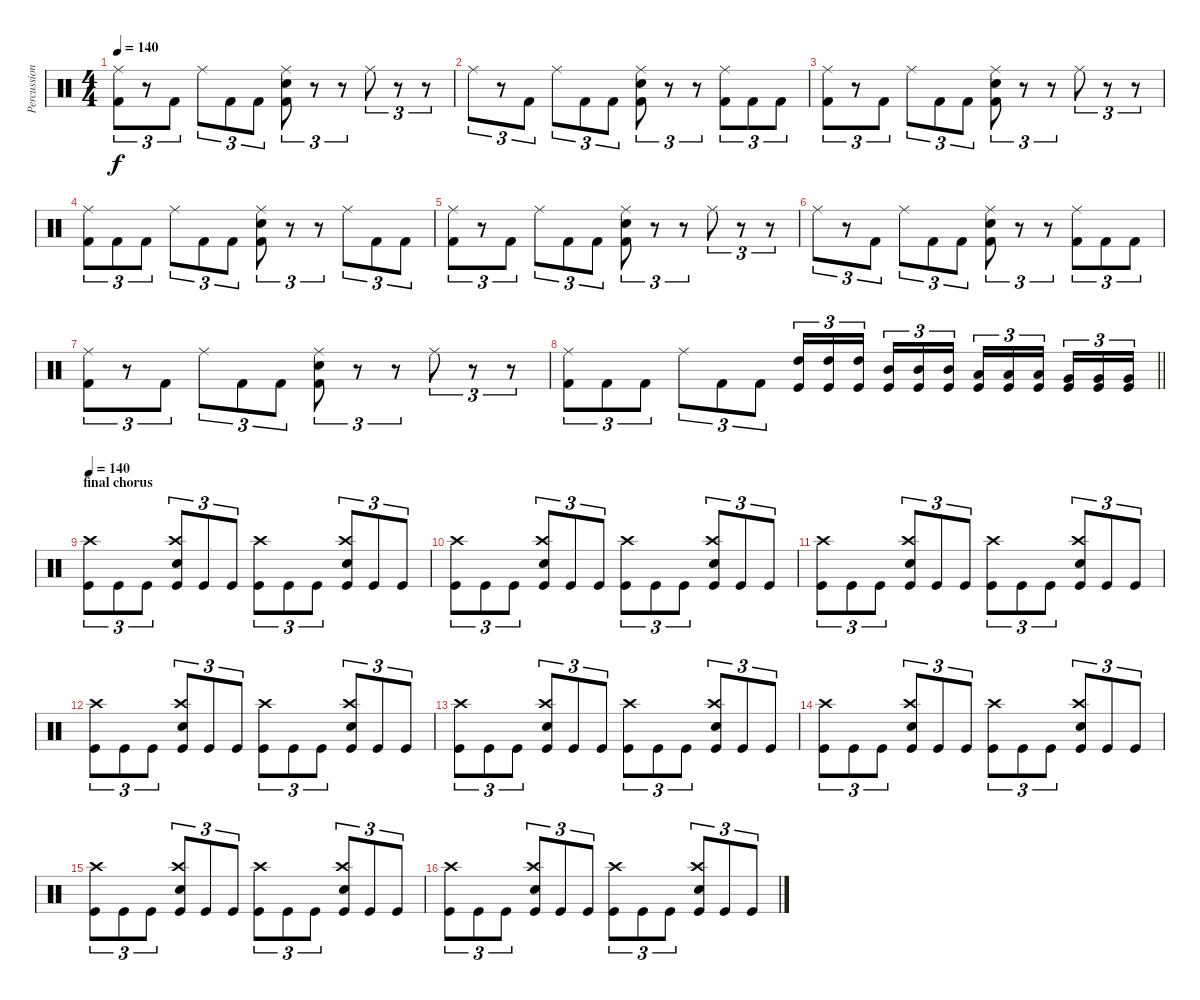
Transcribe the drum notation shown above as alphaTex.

\track ("Percussion" "Percussion") {instrument percussion}
\staff
\articulation defaults
\ts (4 4)
\tempo 140
\clef neutral
\ks c
("Ride (middle)" "Kick (hit) 2").8{tu (3 2) dy f} r.8{tu (3 2)} "Kick (hit) 2".8{tu (3 2)} "Ride (middle)".8{tu (3 2)} "Kick (hit) 2".8{tu (3 2)} "Kick (hit) 2".8{tu (3 2)} ("Ride (middle)" "Electric Snare (hit)" "Kick (hit) 2").8{tu (3 2)} r.8{tu (3 2)} r.8{tu (3 2)} "Ride (middle)".8{tu (3 2)} r.8{tu (3 2)} r.8{tu (3 2)} |
"Ride (middle)".8{tu (3 2)} r.8{tu (3 2)} "Kick (hit) 2".8{tu (3 2)} "Ride (middle)".8{tu (3 2)} "Kick (hit) 2".8{tu (3 2)} "Kick (hit) 2".8{tu (3 2)} ("Ride (middle)" "Electric Snare (hit)" "Kick (hit) 2").8{tu (3 2)} r.8{tu (3 2)} r.8{tu (3 2)} ("Ride (middle)" "Kick (hit) 2").8{tu (3 2)} "Kick (hit) 2".8{tu (3 2)} "Kick (hit) 2".8{tu (3 2)} |
("Ride (middle)" "Kick (hit) 2").8{tu (3 2)} r.8{tu (3 2)} "Kick (hit) 2".8{tu (3 2)} "Ride (middle)".8{tu (3 2)} "Kick (hit) 2".8{tu (3 2)} "Kick (hit) 2".8{tu (3 2)} ("Ride (middle)" "Electric Snare (hit)" "Kick (hit) 2").8{tu (3 2)} r.8{tu (3 2)} r.8{tu (3 2)} "Ride (middle)".8{tu (3 2)} r.8{tu (3 2)} r.8{tu (3 2)} |
("Ride (middle)" "Kick (hit) 2").8{tu (3 2)} "Kick (hit) 2".8{tu (3 2)} "Kick (hit) 2".8{tu (3 2)} "Ride (middle)".8{tu (3 2)} "Kick (hit) 2".8{tu (3 2)} "Kick (hit) 2".8{tu (3 2)} ("Ride (middle)" "Electric Snare (hit)" "Kick (hit) 2").8{tu (3 2)} r.8{tu (3 2)} r.8{tu (3 2)} "Ride (middle)".8{tu (3 2)} "Kick (hit) 2".8{tu (3 2)} "Kick (hit) 2".8{tu (3 2)} |
("Ride (middle)" "Kick (hit) 2").8{tu (3 2)} r.8{tu (3 2)} "Kick (hit) 2".8{tu (3 2)} "Ride (middle)".8{tu (3 2)} "Kick (hit) 2".8{tu (3 2)} "Kick (hit) 2".8{tu (3 2)} ("Ride (middle)" "Electric Snare (hit)" "Kick (hit) 2").8{tu (3 2)} r.8{tu (3 2)} r.8{tu (3 2)} "Ride (middle)".8{tu (3 2)} r.8{tu (3 2)} r.8{tu (3 2)} |
"Ride (middle)".8{tu (3 2)} r.8{tu (3 2)} "Kick (hit) 2".8{tu (3 2)} "Ride (middle)".8{tu (3 2)} "Kick (hit) 2".8{tu (3 2)} "Kick (hit) 2".8{tu (3 2)} ("Ride (middle)" "Electric Snare (hit)" "Kick (hit) 2").8{tu (3 2)} r.8{tu (3 2)} r.8{tu (3 2)} ("Ride (middle)" "Kick (hit) 2").8{tu (3 2)} "Kick (hit) 2".8{tu (3 2)} "Kick (hit) 2".8{tu (3 2)} |
("Ride (middle)" "Kick (hit) 2").8{tu (3 2)} r.8{tu (3 2)} "Kick (hit) 2".8{tu (3 2)} "Ride (middle)".8{tu (3 2)} "Kick (hit) 2".8{tu (3 2)} "Kick (hit) 2".8{tu (3 2)} ("Ride (middle)" "Electric Snare (hit)" "Kick (hit) 2").8{tu (3 2)} r.8{tu (3 2)} r.8{tu (3 2)} "Ride (middle)".8{tu (3 2)} r.8{tu (3 2)} r.8{tu (3 2)} |
\barLineRight lightlight
("Ride (middle)" "Kick (hit) 2").8{tu (3 2)} "Kick (hit) 2".8{tu (3 2)} "Kick (hit) 2".8{tu (3 2)} "Ride (middle)".8{tu (3 2)} "Kick (hit) 2".8{tu (3 2)} "Kick (hit) 2".8{tu (3 2)} ("High Tom (hit)" "Kick (hit)").16{tu (3 2)} ("High Tom (hit)" "Kick (hit)").16{tu (3 2)} ("High Tom (hit)" "Kick (hit)").16{tu (3 2) beam splitsecondary} ("Mid Tom (hit)" "Kick (hit)").16{tu (3 2)} ("Mid Tom (hit)" "Kick (hit)").16{tu (3 2)} ("Mid Tom (hit)" "Kick (hit)").16{tu (3 2)} ("Low Tom (hit)" "Kick (hit)").16{tu (3 2)} ("Low Tom (hit)" "Kick (hit)").16{tu (3 2)} ("Low Tom (hit)" "Kick (hit)").16{tu (3 2) beam splitsecondary} ("Very Low Tom (hit)" "Kick (hit)").16{tu (3 2)} ("Very Low Tom (hit)" "Kick (hit)").16{tu (3 2)} ("Very Low Tom (hit)" "Kick (hit)").16{tu (3 2)} |
\section ("" "final chorus")
\tempo 140
("Crash high (hit)" "Kick (hit)").8{tu (3 2)} "Kick (hit)".8{tu (3 2)} "Kick (hit)".8{tu (3 2)} ("Crash high (hit)" "Snare (hit) 2" "Kick (hit)").8{tu (3 2)} "Kick (hit)".8{tu (3 2)} "Kick (hit)".8{tu (3 2)} ("Crash high (hit)" "Kick (hit)").8{tu (3 2)} "Kick (hit)".8{tu (3 2)} "Kick (hit)".8{tu (3 2)} ("Crash high (hit)" "Snare (hit) 2" "Kick (hit)").8{tu (3 2)} "Kick (hit)".8{tu (3 2)} "Kick (hit)".8{tu (3 2)} |
("Crash high (hit)" "Kick (hit)").8{tu (3 2)} "Kick (hit)".8{tu (3 2)} "Kick (hit)".8{tu (3 2)} ("Crash high (hit)" "Snare (hit) 2" "Kick (hit)").8{tu (3 2)} "Kick (hit)".8{tu (3 2)} "Kick (hit)".8{tu (3 2)} ("Crash high (hit)" "Kick (hit)").8{tu (3 2)} "Kick (hit)".8{tu (3 2)} "Kick (hit)".8{tu (3 2)} ("Crash high (hit)" "Snare (hit) 2" "Kick (hit)").8{tu (3 2)} "Kick (hit)".8{tu (3 2)} "Kick (hit)".8{tu (3 2)} |
("Crash high (hit)" "Kick (hit)").8{tu (3 2)} "Kick (hit)".8{tu (3 2)} "Kick (hit)".8{tu (3 2)} ("Crash high (hit)" "Snare (hit) 2" "Kick (hit)").8{tu (3 2)} "Kick (hit)".8{tu (3 2)} "Kick (hit)".8{tu (3 2)} ("Crash high (hit)" "Kick (hit)").8{tu (3 2)} "Kick (hit)".8{tu (3 2)} "Kick (hit)".8{tu (3 2)} ("Crash high (hit)" "Snare (hit) 2" "Kick (hit)").8{tu (3 2)} "Kick (hit)".8{tu (3 2)} "Kick (hit)".8{tu (3 2)} |
("Crash high (hit)" "Kick (hit)").8{tu (3 2)} "Kick (hit)".8{tu (3 2)} "Kick (hit)".8{tu (3 2)} ("Crash high (hit)" "Snare (hit) 2" "Kick (hit)").8{tu (3 2)} "Kick (hit)".8{tu (3 2)} "Kick (hit)".8{tu (3 2)} ("Crash high (hit)" "Kick (hit)").8{tu (3 2)} "Kick (hit)".8{tu (3 2)} "Kick (hit)".8{tu (3 2)} ("Crash high (hit)" "Snare (hit) 2" "Kick (hit)").8{tu (3 2)} "Kick (hit)".8{tu (3 2)} "Kick (hit)".8{tu (3 2)} |
("Crash high (hit)" "Kick (hit)").8{tu (3 2)} "Kick (hit)".8{tu (3 2)} "Kick (hit)".8{tu (3 2)} ("Crash high (hit)" "Snare (hit) 2" "Kick (hit)").8{tu (3 2)} "Kick (hit)".8{tu (3 2)} "Kick (hit)".8{tu (3 2)} ("Crash high (hit)" "Kick (hit)").8{tu (3 2)} "Kick (hit)".8{tu (3 2)} "Kick (hit)".8{tu (3 2)} ("Crash high (hit)" "Snare (hit) 2" "Kick (hit)").8{tu (3 2)} "Kick (hit)".8{tu (3 2)} "Kick (hit)".8{tu (3 2)} |
("Crash high (hit)" "Kick (hit)").8{tu (3 2)} "Kick (hit)".8{tu (3 2)} "Kick (hit)".8{tu (3 2)} ("Crash high (hit)" "Snare (hit) 2" "Kick (hit)").8{tu (3 2)} "Kick (hit)".8{tu (3 2)} "Kick (hit)".8{tu (3 2)} ("Crash high (hit)" "Kick (hit)").8{tu (3 2)} "Kick (hit)".8{tu (3 2)} "Kick (hit)".8{tu (3 2)} ("Crash high (hit)" "Snare (hit) 2" "Kick (hit)").8{tu (3 2)} "Kick (hit)".8{tu (3 2)} "Kick (hit)".8{tu (3 2)} |
("Crash high (hit)" "Kick (hit)").8{tu (3 2)} "Kick (hit)".8{tu (3 2)} "Kick (hit)".8{tu (3 2)} ("Crash high (hit)" "Snare (hit) 2" "Kick (hit)").8{tu (3 2)} "Kick (hit)".8{tu (3 2)} "Kick (hit)".8{tu (3 2)} ("Crash high (hit)" "Kick (hit)").8{tu (3 2)} "Kick (hit)".8{tu (3 2)} "Kick (hit)".8{tu (3 2)} ("Crash high (hit)" "Snare (hit) 2" "Kick (hit)").8{tu (3 2)} "Kick (hit)".8{tu (3 2)} "Kick (hit)".8{tu (3 2)} |
("Crash high (hit)" "Kick (hit)").8{tu (3 2)} "Kick (hit)".8{tu (3 2)} "Kick (hit)".8{tu (3 2)} ("Crash high (hit)" "Snare (hit) 2" "Kick (hit)").8{tu (3 2)} "Kick (hit)".8{tu (3 2)} "Kick (hit)".8{tu (3 2)} ("Crash high (hit)" "Kick (hit)").8{tu (3 2)} "Kick (hit)".8{tu (3 2)} "Kick (hit)".8{tu (3 2)} ("Crash high (hit)" "Snare (hit) 2" "Kick (hit)").8{tu (3 2)} "Kick (hit)".8{tu (3 2)} "Kick (hit)".8{tu (3 2)}
